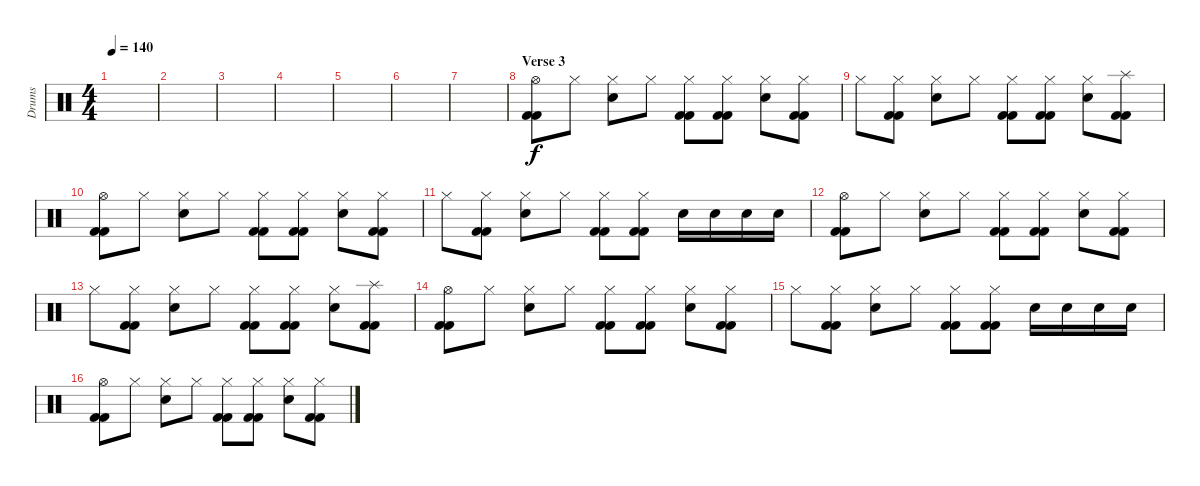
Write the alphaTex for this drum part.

\track ("Drums" "Drums") {instrument percussion}
\staff {score}
\articulation defaults
\ts (4 4)
\tempo 140
\clef neutral
\ks c
|
|
|
|
|
|
|
\section ("" "Verse 3")
("Hi-Hat (open)" "Kick (hit) 2" "Kick (hit) 2").8 "Hi-Hat (closed)".8 ("Hi-Hat (closed)" "Electric Snare (hit)").8 "Hi-Hat (closed)".8 ("Hi-Hat (closed)" "Kick (hit) 2" "Kick (hit) 2").8 ("Hi-Hat (closed)" "Kick (hit) 2" "Kick (hit) 2").8 ("Hi-Hat (closed)" "Electric Snare (hit)").8 ("Hi-Hat (closed)" "Kick (hit) 2" "Kick (hit) 2").8 |
"Hi-Hat (closed)".8 ("Hi-Hat (closed)" "Kick (hit) 2" "Kick (hit) 2").8 ("Hi-Hat (closed)" "Electric Snare (hit)").8 "Hi-Hat (closed)".8 ("Hi-Hat (closed)" "Kick (hit) 2" "Kick (hit) 2").8 ("Hi-Hat (closed)" "Kick (hit) 2" "Kick (hit) 2").8 ("Hi-Hat (closed)" "Electric Snare (hit)").8 ("Splash (hit)" "Kick (hit) 2" "Kick (hit) 2").8 |
("Hi-Hat (open)" "Kick (hit) 2" "Kick (hit) 2").8 "Hi-Hat (closed)".8 ("Hi-Hat (closed)" "Electric Snare (hit)").8 "Hi-Hat (closed)".8 ("Hi-Hat (closed)" "Kick (hit) 2" "Kick (hit) 2").8 ("Hi-Hat (closed)" "Kick (hit) 2" "Kick (hit) 2").8 ("Hi-Hat (closed)" "Electric Snare (hit)").8 ("Hi-Hat (closed)" "Kick (hit) 2" "Kick (hit) 2").8 |
"Hi-Hat (closed)".8 ("Hi-Hat (closed)" "Kick (hit) 2" "Kick (hit) 2").8 ("Hi-Hat (closed)" "Electric Snare (hit)").8 "Hi-Hat (closed)".8 ("Hi-Hat (closed)" "Kick (hit) 2" "Kick (hit) 2").8 ("Hi-Hat (closed)" "Kick (hit) 2" "Kick (hit) 2").8 "Electric Snare (hit)".16 "Electric Snare (hit)".16 "Electric Snare (hit)".16 "Electric Snare (hit)".16 |
("Hi-Hat (open)" "Kick (hit) 2" "Kick (hit) 2").8 "Hi-Hat (closed)".8 ("Hi-Hat (closed)" "Electric Snare (hit)").8 "Hi-Hat (closed)".8 ("Hi-Hat (closed)" "Kick (hit) 2" "Kick (hit) 2").8 ("Hi-Hat (closed)" "Kick (hit) 2" "Kick (hit) 2").8 ("Hi-Hat (closed)" "Electric Snare (hit)").8 ("Hi-Hat (closed)" "Kick (hit) 2" "Kick (hit) 2").8 |
"Hi-Hat (closed)".8 ("Hi-Hat (closed)" "Kick (hit) 2" "Kick (hit) 2").8 ("Hi-Hat (closed)" "Electric Snare (hit)").8 "Hi-Hat (closed)".8 ("Hi-Hat (closed)" "Kick (hit) 2" "Kick (hit) 2").8 ("Hi-Hat (closed)" "Kick (hit) 2" "Kick (hit) 2").8 ("Hi-Hat (closed)" "Electric Snare (hit)").8 ("Splash (hit)" "Kick (hit) 2" "Kick (hit) 2").8 |
("Hi-Hat (open)" "Kick (hit) 2" "Kick (hit) 2").8 "Hi-Hat (closed)".8 ("Hi-Hat (closed)" "Electric Snare (hit)").8 "Hi-Hat (closed)".8 ("Hi-Hat (closed)" "Kick (hit) 2" "Kick (hit) 2").8 ("Hi-Hat (closed)" "Kick (hit) 2" "Kick (hit) 2").8 ("Hi-Hat (closed)" "Electric Snare (hit)").8 ("Hi-Hat (closed)" "Kick (hit) 2" "Kick (hit) 2").8 |
"Hi-Hat (closed)".8 ("Hi-Hat (closed)" "Kick (hit) 2" "Kick (hit) 2").8 ("Hi-Hat (closed)" "Electric Snare (hit)").8 "Hi-Hat (closed)".8 ("Hi-Hat (closed)" "Kick (hit) 2" "Kick (hit) 2").8 ("Hi-Hat (closed)" "Kick (hit) 2" "Kick (hit) 2").8 "Electric Snare (hit)".16 "Electric Snare (hit)".16 "Electric Snare (hit)".16 "Electric Snare (hit)".16 |
("Hi-Hat (open)" "Kick (hit) 2" "Kick (hit) 2").8 "Hi-Hat (closed)".8 ("Hi-Hat (closed)" "Electric Snare (hit)").8 "Hi-Hat (closed)".8 ("Hi-Hat (closed)" "Kick (hit) 2" "Kick (hit) 2").8 ("Hi-Hat (closed)" "Kick (hit) 2" "Kick (hit) 2").8 ("Hi-Hat (closed)" "Electric Snare (hit)").8 ("Hi-Hat (closed)" "Kick (hit) 2" "Kick (hit) 2").8
